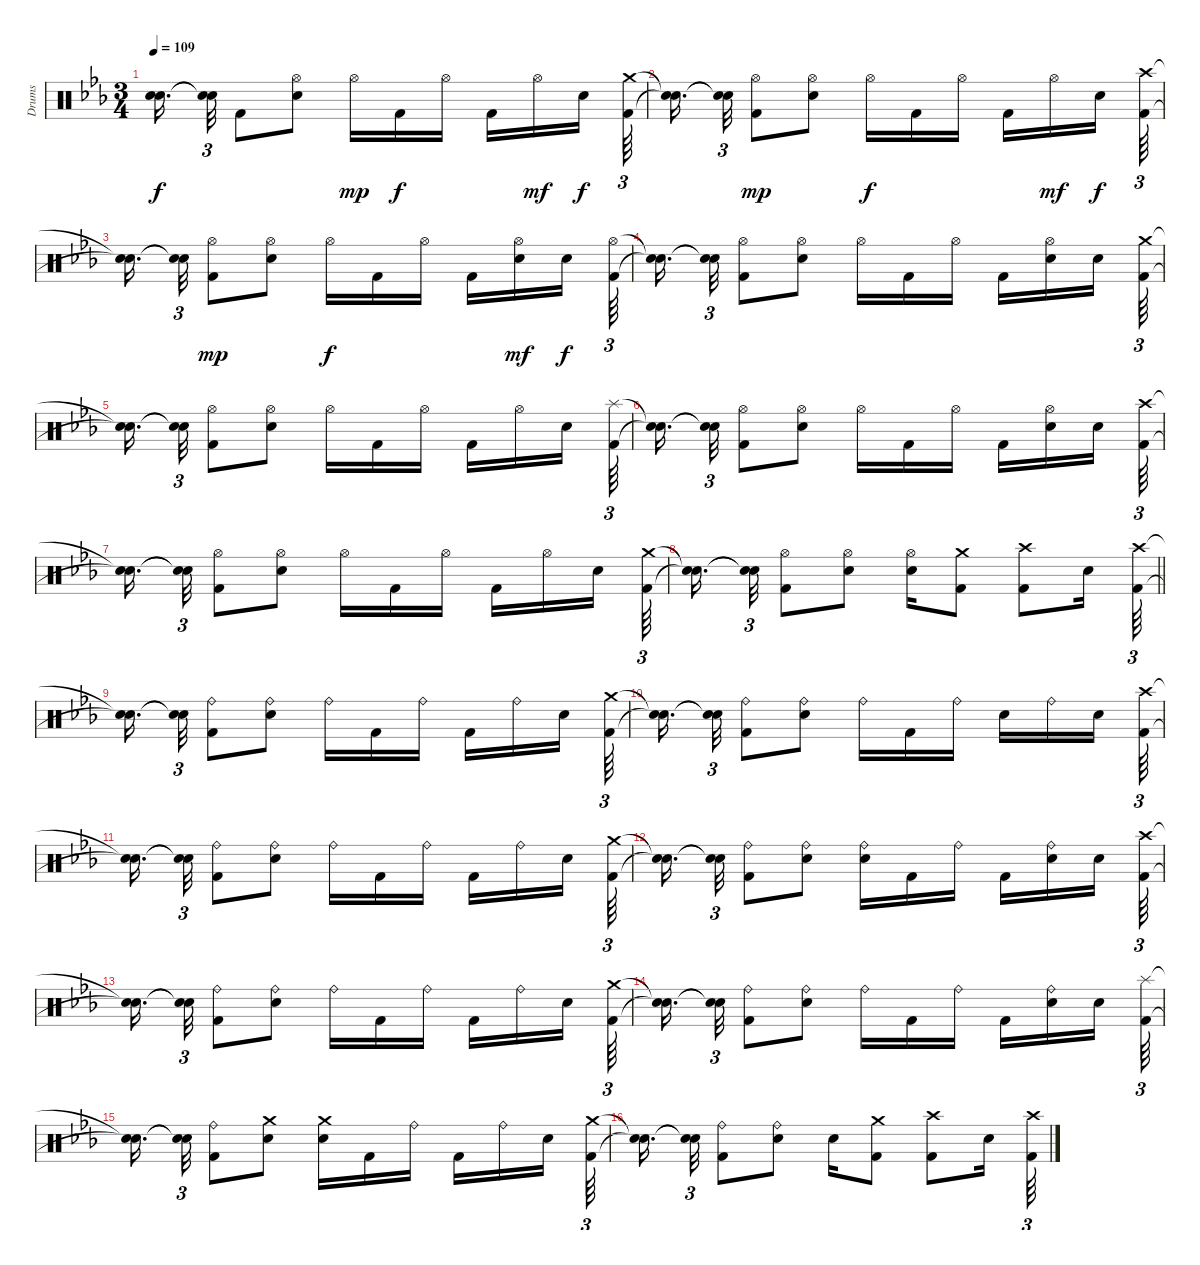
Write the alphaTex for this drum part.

\track ("Drums" "Drums") {instrument percussion}
\staff {score}
\articulation defaults
\ts (3 4)
\tempo 109
\clef neutral
\ks cminor
("Snare (hit)"{t} "Snare (hit)"{t}).16{d dy f beam splitsecondary} ("Snare (hit)"{t} "Snare (hit)"{t}).32{tu (3 2)} "Kick (hit) 2".8 ("Electric Snare (hit)" "Hi-Hat (open)").8 "Hi-Hat (open)".16{dy mp} "Kick (hit) 2".16{dy f} "Hi-Hat (open)".16 "Kick (hit) 2".16 "Hi-Hat (open)".16{dy mf} "Electric Snare (hit)".16{dy f beam splitsecondary} ("Kick (hit) 2" "Crash medium (hit)").64{tu (3 2)} |
("Snare (hit)"{t} "Snare (hit)"{t}).16{d beam splitsecondary} ("Snare (hit)"{t} "Snare (hit)"{t}).32{tu (3 2)} ("Kick (hit) 2" "Hi-Hat (open)").8{dy mp} ("Electric Snare (hit)" "Hi-Hat (open)").8 "Hi-Hat (open)".16{dy f} "Kick (hit) 2".16 "Hi-Hat (open)".16 "Kick (hit) 2".16 "Hi-Hat (open)".16{dy mf} "Electric Snare (hit)".16{dy f beam splitsecondary} ("Kick (hit) 2" "Crash high (hit)").64{tu (3 2)} |
("Snare (hit)"{t} "Snare (hit)"{t}).16{d beam splitsecondary} ("Snare (hit)"{t} "Snare (hit)"{t}).32{tu (3 2)} ("Kick (hit) 2" "Hi-Hat (open)").8{dy mp} ("Electric Snare (hit)" "Hi-Hat (open)").8 "Hi-Hat (open)".16{dy f} "Kick (hit) 2".16 "Hi-Hat (open)".16 "Kick (hit) 2".16 ("Electric Snare (hit)" "Hi-Hat (open)").16{dy mf} "Electric Snare (hit)".16{dy f beam splitsecondary} ("Kick (hit) 2" "Hi-Hat (open)").64{tu (3 2)} |
("Snare (hit)"{t} "Snare (hit)"{t}).16{d beam splitsecondary} ("Snare (hit)"{t} "Snare (hit)"{t}).32{tu (3 2)} ("Kick (hit) 2" "Hi-Hat (open)").8 ("Electric Snare (hit)" "Hi-Hat (open)").8 "Hi-Hat (open)".16 "Kick (hit) 2".16 "Hi-Hat (open)".16 "Kick (hit) 2".16 ("Electric Snare (hit)" "Hi-Hat (open)").16 "Electric Snare (hit)".16{beam splitsecondary} ("Crash medium (hit)" "Kick (hit) 2").64{tu (3 2)} |
("Snare (hit)"{t} "Snare (hit)"{t}).16{d beam splitsecondary} ("Snare (hit)"{t} "Snare (hit)"{t}).32{tu (3 2)} ("Kick (hit) 2" "Hi-Hat (open)").8 ("Electric Snare (hit)" "Hi-Hat (open)").8 "Hi-Hat (open)".16 "Kick (hit) 2".16 "Hi-Hat (open)".16 "Kick (hit) 2".16 "Hi-Hat (open)".16 "Electric Snare (hit)".16{beam splitsecondary} ("Kick (hit) 2" "Splash (hit)").64{tu (3 2)} |
("Snare (hit)"{t} "Snare (hit)"{t}).16{d beam splitsecondary} ("Snare (hit)"{t} "Snare (hit)"{t}).32{tu (3 2)} ("Kick (hit) 2" "Hi-Hat (open)").8 ("Electric Snare (hit)" "Hi-Hat (open)").8 "Hi-Hat (open)".16 "Kick (hit) 2".16 "Hi-Hat (open)".16 "Kick (hit) 2".16 ("Electric Snare (hit)" "Hi-Hat (open)").16 "Electric Snare (hit)".16{beam splitsecondary} ("Kick (hit) 2" "Crash high (hit)").64{tu (3 2)} |
("Snare (hit)"{t} "Snare (hit)"{t}).16{d beam splitsecondary} ("Snare (hit)"{t} "Snare (hit)"{t}).32{tu (3 2)} ("Kick (hit) 2" "Hi-Hat (open)").8 ("Electric Snare (hit)" "Hi-Hat (open)").8 "Hi-Hat (open)".16 "Kick (hit) 2".16 "Hi-Hat (open)".16 "Kick (hit) 2".16 "Hi-Hat (open)".16 "Electric Snare (hit)".16{beam splitsecondary} ("Kick (hit) 2" "Crash medium (hit)").64{tu (3 2)} |
\barLineRight lightlight
("Snare (hit)"{t} "Snare (hit)"{t}).16{d beam splitsecondary} ("Snare (hit)"{t} "Snare (hit)"{t}).32{tu (3 2)} ("Kick (hit) 2" "Hi-Hat (open)").8 ("Electric Snare (hit)" "Hi-Hat (open)").8 ("Electric Snare (hit)" "Hi-Hat (open)").16 ("Kick (hit) 2" "Crash medium (hit)").8 ("Kick (hit) 2" "Crash high (hit)").8 "Electric Snare (hit)".16 ("Kick (hit) 2" "Crash high (hit)").64{tu (3 2)} |
("Snare (hit)"{t} "Snare (hit)"{t}).16{d beam splitsecondary} ("Snare (hit)"{t} "Snare (hit)"{t}).32{tu (3 2)} ("Kick (hit) 2" "Ride (bell)").8 ("Electric Snare (hit)" "Ride (bell)").8 "Ride (bell)".16 "Kick (hit) 2".16 "Ride (bell)".16 "Kick (hit) 2".16 "Ride (bell)".16 "Electric Snare (hit)".16{beam splitsecondary} ("Kick (hit) 2" "Crash medium (hit)").64{tu (3 2)} |
("Snare (hit)"{t} "Snare (hit)"{t}).16{d beam splitsecondary} ("Snare (hit)"{t} "Snare (hit)"{t}).32{tu (3 2)} ("Kick (hit) 2" "Ride (bell)").8 ("Electric Snare (hit)" "Ride (bell)").8 "Ride (bell)".16 "Kick (hit) 2".16 "Ride (bell)".16 "Electric Snare (hit)".16 "Ride (bell)".16 "Electric Snare (hit)".16{beam splitsecondary} ("Crash high (hit)" "Kick (hit) 2").64{tu (3 2)} |
("Snare (hit)"{t} "Snare (hit)"{t}).16{d beam splitsecondary} ("Snare (hit)"{t} "Snare (hit)"{t}).32{tu (3 2)} ("Kick (hit) 2" "Ride (bell)").8 ("Electric Snare (hit)" "Ride (bell)").8 "Ride (bell)".16 "Kick (hit) 2".16 "Ride (bell)".16 "Kick (hit) 2".16 "Ride (bell)".16 "Electric Snare (hit)".16{beam splitsecondary} ("Kick (hit) 2" "Crash medium (hit)").64{tu (3 2)} |
("Snare (hit)"{t} "Snare (hit)"{t}).16{d beam splitsecondary} ("Snare (hit)"{t} "Snare (hit)"{t}).32{tu (3 2)} ("Kick (hit) 2" "Ride (bell)").8 ("Electric Snare (hit)" "Ride (bell)").8 ("Electric Snare (hit)" "Ride (bell)").16 "Kick (hit) 2".16 "Ride (bell)".16 "Kick (hit) 2".16 ("Electric Snare (hit)" "Ride (bell)").16 "Electric Snare (hit)".16{beam splitsecondary} ("Crash high (hit)" "Kick (hit) 2").64{tu (3 2)} |
("Snare (hit)"{t} "Snare (hit)"{t}).16{d beam splitsecondary} ("Snare (hit)"{t} "Snare (hit)"{t}).32{tu (3 2)} ("Kick (hit) 2" "Ride (bell)").8 ("Electric Snare (hit)" "Ride (bell)").8 "Ride (bell)".16 "Kick (hit) 2".16 "Ride (bell)".16 "Kick (hit) 2".16 "Ride (bell)".16 "Electric Snare (hit)".16{beam splitsecondary} ("Kick (hit) 2" "Crash medium (hit)").64{tu (3 2)} |
("Snare (hit)"{t} "Snare (hit)"{t}).16{d beam splitsecondary} ("Snare (hit)"{t} "Snare (hit)"{t}).32{tu (3 2)} ("Kick (hit) 2" "Ride (bell)").8 ("Electric Snare (hit)" "Ride (bell)").8 "Ride (bell)".16 "Kick (hit) 2".16 "Ride (bell)".16 "Kick (hit) 2".16 ("Ride (bell)" "Electric Snare (hit)").16 "Electric Snare (hit)".16{beam splitsecondary} ("Kick (hit) 2" "Splash (hit)").64{tu (3 2)} |
("Snare (hit)"{t} "Snare (hit)"{t}).16{d beam splitsecondary} ("Snare (hit)"{t} "Snare (hit)"{t}).32{tu (3 2)} ("Kick (hit) 2" "Ride (bell)").8 ("Electric Snare (hit)" "Crash medium (hit)").8 ("Electric Snare (hit)" "Crash medium (hit)").16 "Kick (hit) 2".16 "Ride (bell)".16 "Kick (hit) 2".16 "Ride (bell)".16 "Electric Snare (hit)".16{beam splitsecondary} ("Crash medium (hit)" "Kick (hit) 2").64{tu (3 2)} |
("Snare (hit)"{t} "Snare (hit)"{t}).16{d beam splitsecondary} ("Snare (hit)"{t} "Snare (hit)"{t}).32{tu (3 2)} ("Kick (hit) 2" "Ride (bell)").8 ("Electric Snare (hit)" "Ride (bell)").8 "Electric Snare (hit)".16 ("Kick (hit) 2" "Crash medium (hit)").8 ("Kick (hit) 2" "Crash high (hit)").8 "Electric Snare (hit)".16 ("Kick (hit) 2" "Crash high (hit)").64{tu (3 2)}
